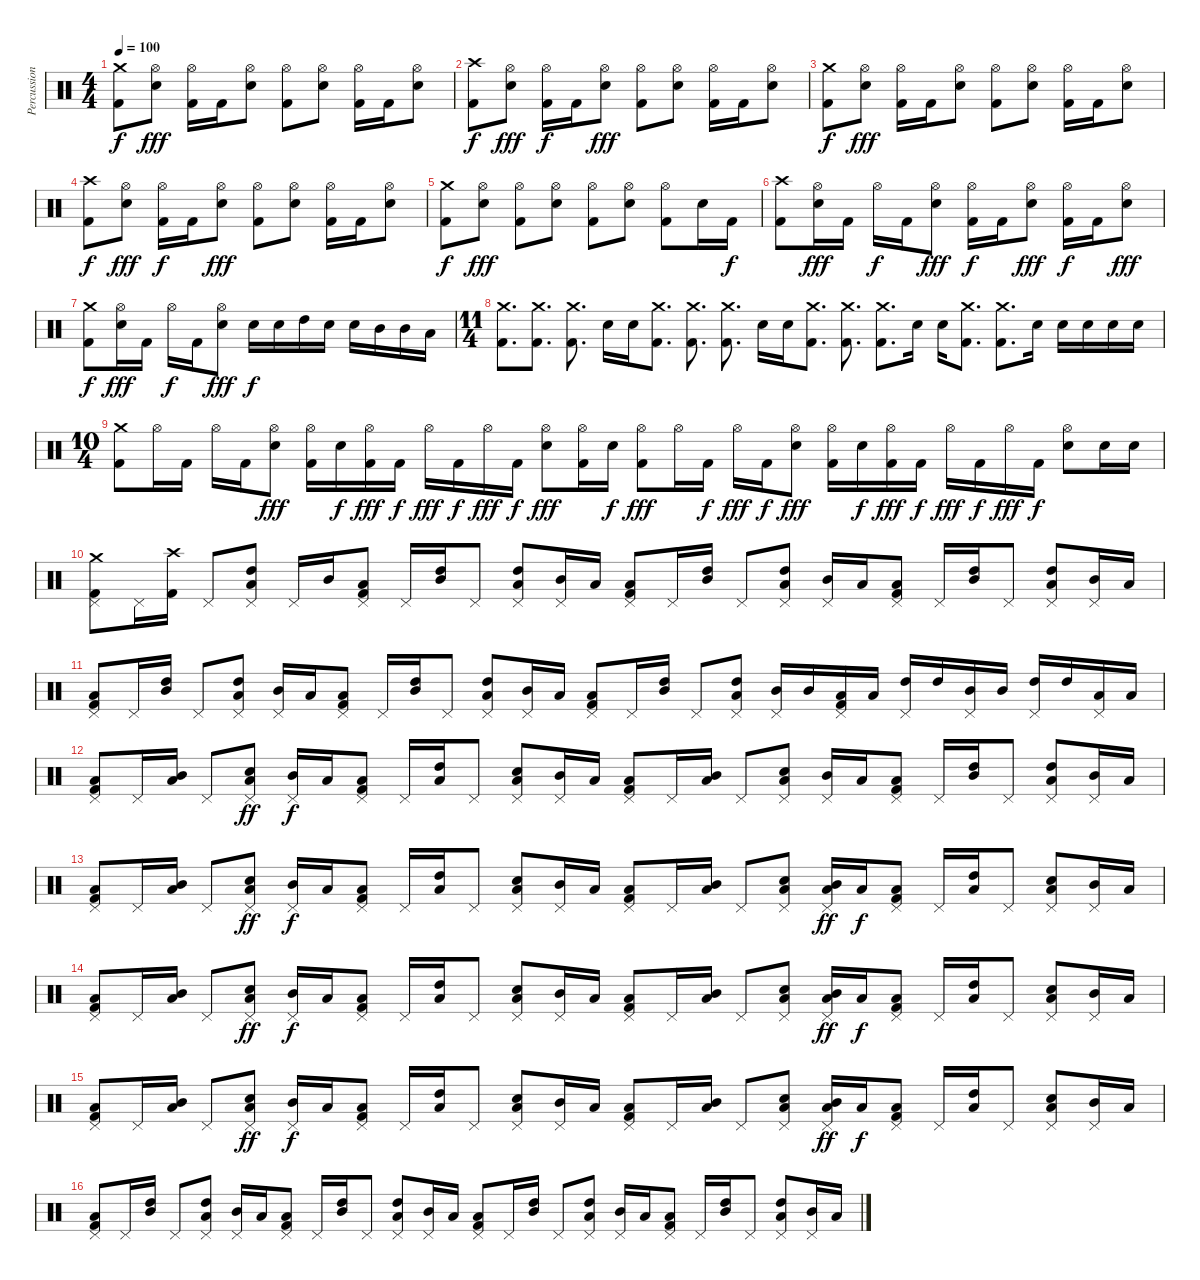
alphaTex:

\track ("Percussion" "Percussion") {instrument percussion}
\staff {score}
\articulation defaults
\ts (4 4)
\tempo 100
\clef neutral
\ks c
("Crash medium (hit)" "Kick (hit) 2").8{dy f} ("Hi-Hat (open)" "Electric Snare (hit)").8{dy fff} ("Hi-Hat (open)" "Kick (hit) 2").16 "Kick (hit) 2".16 ("Hi-Hat (open)" "Electric Snare (hit)").8 ("Hi-Hat (open)" "Kick (hit) 2").8 ("Hi-Hat (open)" "Electric Snare (hit)").8 ("Hi-Hat (open)" "Kick (hit) 2").16 "Kick (hit) 2".16 ("Hi-Hat (open)" "Electric Snare (hit)").8 |
("Crash high (hit)" "Kick (hit) 2").8{dy f} ("Hi-Hat (open)" "Electric Snare (hit)").8{dy fff} ("Hi-Hat (open)" "Kick (hit) 2").16{dy f} "Kick (hit) 2".16 ("Hi-Hat (open)" "Electric Snare (hit)").8{dy fff} ("Hi-Hat (open)" "Kick (hit) 2").8 ("Hi-Hat (open)" "Electric Snare (hit)").8 ("Hi-Hat (open)" "Kick (hit) 2").16 "Kick (hit) 2".16 ("Hi-Hat (open)" "Electric Snare (hit)").8 |
("Crash medium (hit)" "Kick (hit) 2").8{dy f} ("Hi-Hat (open)" "Electric Snare (hit)").8{dy fff} ("Hi-Hat (open)" "Kick (hit) 2").16 "Kick (hit) 2".16 ("Hi-Hat (open)" "Electric Snare (hit)").8 ("Hi-Hat (open)" "Kick (hit) 2").8 ("Hi-Hat (open)" "Electric Snare (hit)").8 ("Hi-Hat (open)" "Kick (hit) 2").16 "Kick (hit) 2".16 ("Hi-Hat (open)" "Electric Snare (hit)").8 |
("Crash high (hit)" "Kick (hit) 2").8{dy f} ("Hi-Hat (open)" "Electric Snare (hit)").8{dy fff} ("Hi-Hat (open)" "Kick (hit) 2").16{dy f} "Kick (hit) 2".16 ("Hi-Hat (open)" "Electric Snare (hit)").8{dy fff} ("Hi-Hat (open)" "Kick (hit) 2").8 ("Hi-Hat (open)" "Electric Snare (hit)").8 ("Hi-Hat (open)" "Kick (hit) 2").16 "Kick (hit) 2".16 ("Hi-Hat (open)" "Electric Snare (hit)").8 |
("Crash medium (hit)" "Kick (hit) 2").8{dy f} ("Hi-Hat (open)" "Electric Snare (hit)").8{dy fff} ("Hi-Hat (open)" "Kick (hit) 2").8 ("Hi-Hat (open)" "Electric Snare (hit)").8 ("Hi-Hat (open)" "Kick (hit) 2").8 ("Hi-Hat (open)" "Electric Snare (hit)").8 ("Hi-Hat (open)" "Kick (hit) 2").8 "Electric Snare (hit)".16 "Kick (hit) 2".16{dy f} |
("Crash high (hit)" "Kick (hit) 2").8 ("Hi-Hat (open)" "Electric Snare (hit)").16{dy fff} "Kick (hit) 2".16 "Hi-Hat (open)".16{dy f} "Kick (hit) 2".16 ("Hi-Hat (open)" "Electric Snare (hit)").8{dy fff} ("Hi-Hat (open)" "Kick (hit) 2").16{dy f} "Kick (hit) 2".16 ("Hi-Hat (open)" "Electric Snare (hit)").8{dy fff} ("Hi-Hat (open)" "Kick (hit) 2").16{dy f} "Kick (hit) 2".16 ("Hi-Hat (open)" "Electric Snare (hit)").8{dy fff} |
("Crash medium (hit)" "Kick (hit) 2").8{dy f} ("Hi-Hat (open)" "Electric Snare (hit)").16{dy fff} "Kick (hit) 2".16 "Hi-Hat (open)".16{dy f} "Kick (hit) 2".16 ("Hi-Hat (open)" "Electric Snare (hit)").8{dy fff} "Electric Snare (hit)".16{dy f} "Electric Snare (hit)".16 "High Tom (hit)".16 "Electric Snare (hit)".16 "Electric Snare (hit)".16 "Mid Tom (hit)".16 "Mid Tom (hit)".16 "Low Tom (hit)".16 |
\ts (11 4)
("Crash medium (hit)" "Kick (hit) 2").8{d} ("Crash medium (hit)" "Kick (hit) 2").8{d} ("Crash medium (hit)" "Kick (hit) 2").8{d} "Electric Snare (hit)".16 "Electric Snare (hit)".16 ("Crash medium (hit)" "Kick (hit) 2").8{d} ("Crash medium (hit)" "Kick (hit) 2").8{d} ("Crash medium (hit)" "Kick (hit) 2").8{d} "Electric Snare (hit)".16 "Electric Snare (hit)".16 ("Crash medium (hit)" "Kick (hit) 2").8{d} ("Crash medium (hit)" "Kick (hit) 2").8{d} ("Crash medium (hit)" "Kick (hit) 2").8{d} "Electric Snare (hit)".16 "Electric Snare (hit)".16 ("Crash medium (hit)" "Kick (hit) 2").8{d} ("Crash medium (hit)" "Kick (hit) 2").8{d} "Electric Snare (hit)".16 "Electric Snare (hit)".16 "Electric Snare (hit)".16 "Electric Snare (hit)".16 "Electric Snare (hit)".16 |
\ts (10 4)
("Crash medium (hit)" "Kick (hit) 2").8 "Hi-Hat (open)".16 "Kick (hit) 2".16 "Hi-Hat (open)".16 "Kick (hit) 2".16 ("Hi-Hat (open)" "Electric Snare (hit)").8{dy fff} ("Hi-Hat (open)" "Kick (hit) 2").16 "Electric Snare (hit)".16{dy f} ("Hi-Hat (open)" "Kick (hit) 2").16{dy fff} "Kick (hit) 2".16{dy f} "Hi-Hat (open)".16{dy fff} "Kick (hit) 2".16{dy f} "Hi-Hat (open)".16{dy fff} "Kick (hit) 2".16{dy f} ("Hi-Hat (open)" "Electric Snare (hit)").8{dy fff} ("Hi-Hat (open)" "Kick (hit) 2").16 "Electric Snare (hit)".16{dy f} ("Hi-Hat (open)" "Kick (hit) 2").8{dy fff} "Hi-Hat (open)".16 "Kick (hit) 2".16{dy f} "Hi-Hat (open)".16{dy fff} "Kick (hit) 2".16{dy f} ("Hi-Hat (open)" "Electric Snare (hit)").8{dy fff} ("Hi-Hat (open)" "Kick (hit) 2").16 "Electric Snare (hit)".16{dy f} ("Hi-Hat (open)" "Kick (hit) 2").16{dy fff} "Kick (hit) 2".16{dy f} "Hi-Hat (open)".16{dy fff} "Kick (hit) 2".16{dy f} "Hi-Hat (open)".16{dy fff} "Kick (hit) 2".16{dy f} ("Hi-Hat (open)" "Electric Snare (hit)").8 "Electric Snare (hit)".16 "Electric Snare (hit)".16 |
("Crash medium (hit)" "Pedal Hi-Hat (hit)" "Kick (hit) 2").8 "Pedal Hi-Hat (hit)".16 ("Crash high (hit)" "Kick (hit) 2").16 "Pedal Hi-Hat (hit)".8 ("Low Tom (hit)" "Pedal Hi-Hat (hit)" "High Tom (hit)").8 "Pedal Hi-Hat (hit)".16 "Mid Tom (hit)".16 ("Low Tom (hit)" "Pedal Hi-Hat (hit)" "Kick (hit) 2").8 "Pedal Hi-Hat (hit)".16 ("Mid Tom (hit)" "High Tom (hit)").16 "Pedal Hi-Hat (hit)".8 ("Low Tom (hit)" "Pedal Hi-Hat (hit)" "High Tom (hit)").8 ("Mid Tom (hit)" "Pedal Hi-Hat (hit)").16 "Low Tom (hit)".16 ("Low Tom (hit)" "Pedal Hi-Hat (hit)" "Kick (hit) 2").8 "Pedal Hi-Hat (hit)".16 ("Mid Tom (hit)" "High Tom (hit)").16 "Pedal Hi-Hat (hit)".8 ("Low Tom (hit)" "Pedal Hi-Hat (hit)" "High Tom (hit)").8 ("Mid Tom (hit)" "Pedal Hi-Hat (hit)").16 "Low Tom (hit)".16 ("Low Tom (hit)" "Pedal Hi-Hat (hit)" "Kick (hit) 2").8 "Pedal Hi-Hat (hit)".16 ("Mid Tom (hit)" "High Tom (hit)").16 "Pedal Hi-Hat (hit)".8 ("Low Tom (hit)" "Pedal Hi-Hat (hit)" "High Tom (hit)").8 ("Mid Tom (hit)" "Pedal Hi-Hat (hit)").16 "Low Tom (hit)".16 |
("Low Tom (hit)" "Pedal Hi-Hat (hit)" "Kick (hit) 2").8 "Pedal Hi-Hat (hit)".16 ("Mid Tom (hit)" "High Tom (hit)").16 "Pedal Hi-Hat (hit)".8 ("Low Tom (hit)" "Pedal Hi-Hat (hit)" "High Tom (hit)").8 ("Mid Tom (hit)" "Pedal Hi-Hat (hit)").16 "Low Tom (hit)".16 ("Low Tom (hit)" "Pedal Hi-Hat (hit)" "Kick (hit) 2").8 "Pedal Hi-Hat (hit)".16 ("Mid Tom (hit)" "High Tom (hit)").16 "Pedal Hi-Hat (hit)".8 ("Low Tom (hit)" "Pedal Hi-Hat (hit)" "High Tom (hit)").8 ("Mid Tom (hit)" "Pedal Hi-Hat (hit)").16 "Low Tom (hit)".16 ("Low Tom (hit)" "Pedal Hi-Hat (hit)" "Kick (hit) 2").8 "Pedal Hi-Hat (hit)".16 ("Mid Tom (hit)" "High Tom (hit)").16 "Pedal Hi-Hat (hit)".8 ("Low Tom (hit)" "Pedal Hi-Hat (hit)" "High Tom (hit)").8 ("Mid Tom (hit)" "Pedal Hi-Hat (hit)").16 "Mid Tom (hit)".16 ("Low Tom (hit)" "Pedal Hi-Hat (hit)" "Kick (hit) 2").16 "Low Tom (hit)".16 ("High Tom (hit)" "Pedal Hi-Hat (hit)").16 "High Tom (hit)".16 ("Mid Tom (hit)" "Pedal Hi-Hat (hit)").16 "Mid Tom (hit)".16 ("High Tom (hit)" "Pedal Hi-Hat (hit)").16 "High Tom (hit)".16 ("Low Tom (hit)" "Pedal Hi-Hat (hit)").16 "Low Tom (hit)".16 |
("Low Tom (hit)" "Pedal Hi-Hat (hit)" "Kick (hit) 2").8 "Pedal Hi-Hat (hit)".16 ("Low Tom (hit)" "Mid Tom (hit)").16 "Pedal Hi-Hat (hit)".8 ("Low Tom (hit)" "Pedal Hi-Hat (hit)" "Electric Snare (hit)").8{dy ff} ("Mid Tom (hit)" "Pedal Hi-Hat (hit)").16{dy f} "Low Tom (hit)".16 ("Low Tom (hit)" "Pedal Hi-Hat (hit)" "Kick (hit) 2").8 "Pedal Hi-Hat (hit)".16 ("Low Tom (hit)" "High Tom (hit)").16 "Pedal Hi-Hat (hit)".8 ("Low Tom (hit)" "Pedal Hi-Hat (hit)" "Electric Snare (hit)").8 ("Mid Tom (hit)" "Pedal Hi-Hat (hit)").16 "Low Tom (hit)".16 ("Low Tom (hit)" "Pedal Hi-Hat (hit)" "Kick (hit) 2").8 "Pedal Hi-Hat (hit)".16 ("Low Tom (hit)" "Mid Tom (hit)").16 "Pedal Hi-Hat (hit)".8 ("Low Tom (hit)" "Pedal Hi-Hat (hit)" "Electric Snare (hit)").8 ("Mid Tom (hit)" "Pedal Hi-Hat (hit)").16 "Low Tom (hit)".16 ("Low Tom (hit)" "Pedal Hi-Hat (hit)" "Kick (hit) 2").8 "Pedal Hi-Hat (hit)".16 ("Mid Tom (hit)" "High Tom (hit)").16 "Pedal Hi-Hat (hit)".8 ("Low Tom (hit)" "Pedal Hi-Hat (hit)" "High Tom (hit)").8 ("Mid Tom (hit)" "Pedal Hi-Hat (hit)").16 "Low Tom (hit)".16 |
("Low Tom (hit)" "Pedal Hi-Hat (hit)" "Kick (hit) 2").8 "Pedal Hi-Hat (hit)".16 ("Low Tom (hit)" "Mid Tom (hit)").16 "Pedal Hi-Hat (hit)".8 ("Low Tom (hit)" "Pedal Hi-Hat (hit)" "Electric Snare (hit)").8{dy ff} ("Mid Tom (hit)" "Pedal Hi-Hat (hit)").16{dy f} "Low Tom (hit)".16 ("Low Tom (hit)" "Pedal Hi-Hat (hit)" "Kick (hit) 2").8 "Pedal Hi-Hat (hit)".16 ("Low Tom (hit)" "High Tom (hit)").16 "Pedal Hi-Hat (hit)".8 ("Low Tom (hit)" "Pedal Hi-Hat (hit)" "Electric Snare (hit)").8 ("Mid Tom (hit)" "Pedal Hi-Hat (hit)").16 "Low Tom (hit)".16 ("Low Tom (hit)" "Pedal Hi-Hat (hit)" "Kick (hit) 2").8 "Pedal Hi-Hat (hit)".16 ("Low Tom (hit)" "Mid Tom (hit)").16 "Pedal Hi-Hat (hit)".8 ("Low Tom (hit)" "Pedal Hi-Hat (hit)" "Electric Snare (hit)").8 ("Low Tom (hit)" "Pedal Hi-Hat (hit)" "Mid Tom (hit)").16{dy ff} "Low Tom (hit)".16{dy f} ("Low Tom (hit)" "Pedal Hi-Hat (hit)" "Kick (hit) 2").8 "Pedal Hi-Hat (hit)".16 ("Low Tom (hit)" "High Tom (hit)").16 "Pedal Hi-Hat (hit)".8 ("Low Tom (hit)" "Pedal Hi-Hat (hit)" "Electric Snare (hit)").8 ("Mid Tom (hit)" "Pedal Hi-Hat (hit)").16 "Low Tom (hit)".16 |
("Low Tom (hit)" "Pedal Hi-Hat (hit)" "Kick (hit) 2").8 "Pedal Hi-Hat (hit)".16 ("Low Tom (hit)" "Mid Tom (hit)").16 "Pedal Hi-Hat (hit)".8 ("Low Tom (hit)" "Pedal Hi-Hat (hit)" "Electric Snare (hit)").8{dy ff} ("Mid Tom (hit)" "Pedal Hi-Hat (hit)").16{dy f} "Low Tom (hit)".16 ("Low Tom (hit)" "Pedal Hi-Hat (hit)" "Kick (hit) 2").8 "Pedal Hi-Hat (hit)".16 ("Low Tom (hit)" "High Tom (hit)").16 "Pedal Hi-Hat (hit)".8 ("Low Tom (hit)" "Pedal Hi-Hat (hit)" "Electric Snare (hit)").8 ("Mid Tom (hit)" "Pedal Hi-Hat (hit)").16 "Low Tom (hit)".16 ("Low Tom (hit)" "Pedal Hi-Hat (hit)" "Kick (hit) 2").8 "Pedal Hi-Hat (hit)".16 ("Low Tom (hit)" "Mid Tom (hit)").16 "Pedal Hi-Hat (hit)".8 ("Low Tom (hit)" "Pedal Hi-Hat (hit)" "Electric Snare (hit)").8 ("Low Tom (hit)" "Pedal Hi-Hat (hit)" "Mid Tom (hit)").16{dy ff} "Low Tom (hit)".16{dy f} ("Low Tom (hit)" "Pedal Hi-Hat (hit)" "Kick (hit) 2").8 "Pedal Hi-Hat (hit)".16 ("Low Tom (hit)" "High Tom (hit)").16 "Pedal Hi-Hat (hit)".8 ("Low Tom (hit)" "Pedal Hi-Hat (hit)" "Electric Snare (hit)").8 ("Mid Tom (hit)" "Pedal Hi-Hat (hit)").16 "Low Tom (hit)".16 |
("Low Tom (hit)" "Pedal Hi-Hat (hit)" "Kick (hit) 2").8 "Pedal Hi-Hat (hit)".16 ("Low Tom (hit)" "Mid Tom (hit)").16 "Pedal Hi-Hat (hit)".8 ("Low Tom (hit)" "Pedal Hi-Hat (hit)" "Electric Snare (hit)").8{dy ff} ("Mid Tom (hit)" "Pedal Hi-Hat (hit)").16{dy f} "Low Tom (hit)".16 ("Low Tom (hit)" "Pedal Hi-Hat (hit)" "Kick (hit) 2").8 "Pedal Hi-Hat (hit)".16 ("Low Tom (hit)" "High Tom (hit)").16 "Pedal Hi-Hat (hit)".8 ("Low Tom (hit)" "Pedal Hi-Hat (hit)" "Electric Snare (hit)").8 ("Mid Tom (hit)" "Pedal Hi-Hat (hit)").16 "Low Tom (hit)".16 ("Low Tom (hit)" "Pedal Hi-Hat (hit)" "Kick (hit) 2").8 "Pedal Hi-Hat (hit)".16 ("Low Tom (hit)" "Mid Tom (hit)").16 "Pedal Hi-Hat (hit)".8 ("Low Tom (hit)" "Pedal Hi-Hat (hit)" "Electric Snare (hit)").8 ("Low Tom (hit)" "Pedal Hi-Hat (hit)" "Mid Tom (hit)").16{dy ff} "Low Tom (hit)".16{dy f} ("Low Tom (hit)" "Pedal Hi-Hat (hit)" "Kick (hit) 2").8 "Pedal Hi-Hat (hit)".16 ("Low Tom (hit)" "High Tom (hit)").16 "Pedal Hi-Hat (hit)".8 ("Low Tom (hit)" "Pedal Hi-Hat (hit)" "Electric Snare (hit)").8 ("Mid Tom (hit)" "Pedal Hi-Hat (hit)").16 "Low Tom (hit)".16 |
("Low Tom (hit)" "Pedal Hi-Hat (hit)" "Kick (hit) 2").8 "Pedal Hi-Hat (hit)".16 ("Mid Tom (hit)" "High Tom (hit)").16 "Pedal Hi-Hat (hit)".8 ("Low Tom (hit)" "Pedal Hi-Hat (hit)" "High Tom (hit)").8 ("Mid Tom (hit)" "Pedal Hi-Hat (hit)").16 "Low Tom (hit)".16 ("Low Tom (hit)" "Pedal Hi-Hat (hit)" "Kick (hit) 2").8 "Pedal Hi-Hat (hit)".16 ("Mid Tom (hit)" "High Tom (hit)").16 "Pedal Hi-Hat (hit)".8 ("Low Tom (hit)" "Pedal Hi-Hat (hit)" "High Tom (hit)").8 ("Mid Tom (hit)" "Pedal Hi-Hat (hit)").16 "Low Tom (hit)".16 ("Low Tom (hit)" "Pedal Hi-Hat (hit)" "Kick (hit) 2").8 "Pedal Hi-Hat (hit)".16 ("Mid Tom (hit)" "High Tom (hit)").16 "Pedal Hi-Hat (hit)".8 ("Low Tom (hit)" "Pedal Hi-Hat (hit)" "High Tom (hit)").8 ("Mid Tom (hit)" "Pedal Hi-Hat (hit)").16 "Low Tom (hit)".16 ("Low Tom (hit)" "Pedal Hi-Hat (hit)" "Kick (hit) 2").8 "Pedal Hi-Hat (hit)".16 ("Mid Tom (hit)" "High Tom (hit)").16 "Pedal Hi-Hat (hit)".8 ("Low Tom (hit)" "Pedal Hi-Hat (hit)" "High Tom (hit)").8 ("Mid Tom (hit)" "Pedal Hi-Hat (hit)").16 "Low Tom (hit)".16
